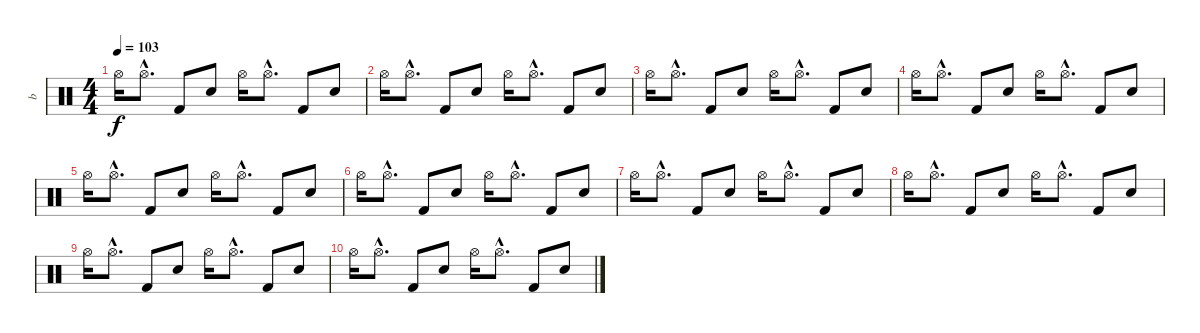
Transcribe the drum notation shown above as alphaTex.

\track ("b" "b") {instrument percussion}
\staff {score}
\articulation defaults
\ts (4 4)
\tempo 103
\clef neutral
\ks c "Hi-Hat (open)".16{dy f} "Hi-Hat (open)"{hac}.8{d} "Kick (hit) 2".8 "Snare (hit) 2".8 "Hi-Hat (open)".16 "Hi-Hat (open)"{hac}.8{d} "Kick (hit) 2".8 "Snare (hit) 2".8
|
"Hi-Hat (open)".16 "Hi-Hat (open)"{hac}.8{d} "Kick (hit) 2".8 "Snare (hit) 2".8 "Hi-Hat (open)".16 "Hi-Hat (open)"{hac}.8{d} "Kick (hit) 2".8 "Snare (hit) 2".8 |
"Hi-Hat (open)".16 "Hi-Hat (open)"{hac}.8{d} "Kick (hit) 2".8 "Snare (hit) 2".8 "Hi-Hat (open)".16 "Hi-Hat (open)"{hac}.8{d} "Kick (hit) 2".8 "Snare (hit) 2".8 |
"Hi-Hat (open)".16 "Hi-Hat (open)"{hac}.8{d} "Kick (hit) 2".8 "Snare (hit) 2".8 "Hi-Hat (open)".16 "Hi-Hat (open)"{hac}.8{d} "Kick (hit) 2".8 "Snare (hit) 2".8 |
"Hi-Hat (open)".16 "Hi-Hat (open)"{hac}.8{d} "Kick (hit) 2".8 "Snare (hit) 2".8 "Hi-Hat (open)".16 "Hi-Hat (open)"{hac}.8{d} "Kick (hit) 2".8 "Snare (hit) 2".8 |
"Hi-Hat (open)".16 "Hi-Hat (open)"{hac}.8{d} "Kick (hit) 2".8 "Snare (hit) 2".8 "Hi-Hat (open)".16 "Hi-Hat (open)"{hac}.8{d} "Kick (hit) 2".8 "Snare (hit) 2".8 |
"Hi-Hat (open)".16 "Hi-Hat (open)"{hac}.8{d} "Kick (hit) 2".8 "Snare (hit) 2".8 "Hi-Hat (open)".16 "Hi-Hat (open)"{hac}.8{d} "Kick (hit) 2".8 "Snare (hit) 2".8 |
"Hi-Hat (open)".16 "Hi-Hat (open)"{hac}.8{d} "Kick (hit) 2".8 "Snare (hit) 2".8 "Hi-Hat (open)".16 "Hi-Hat (open)"{hac}.8{d} "Kick (hit) 2".8 "Snare (hit) 2".8 |
"Hi-Hat (open)".16 "Hi-Hat (open)"{hac}.8{d} "Kick (hit) 2".8 "Snare (hit) 2".8 "Hi-Hat (open)".16 "Hi-Hat (open)"{hac}.8{d} "Kick (hit) 2".8 "Snare (hit) 2".8 |
"Hi-Hat (open)".16 "Hi-Hat (open)"{hac}.8{d} "Kick (hit) 2".8 "Snare (hit) 2".8 "Hi-Hat (open)".16 "Hi-Hat (open)"{hac}.8{d} "Kick (hit) 2".8 "Snare (hit) 2".8
